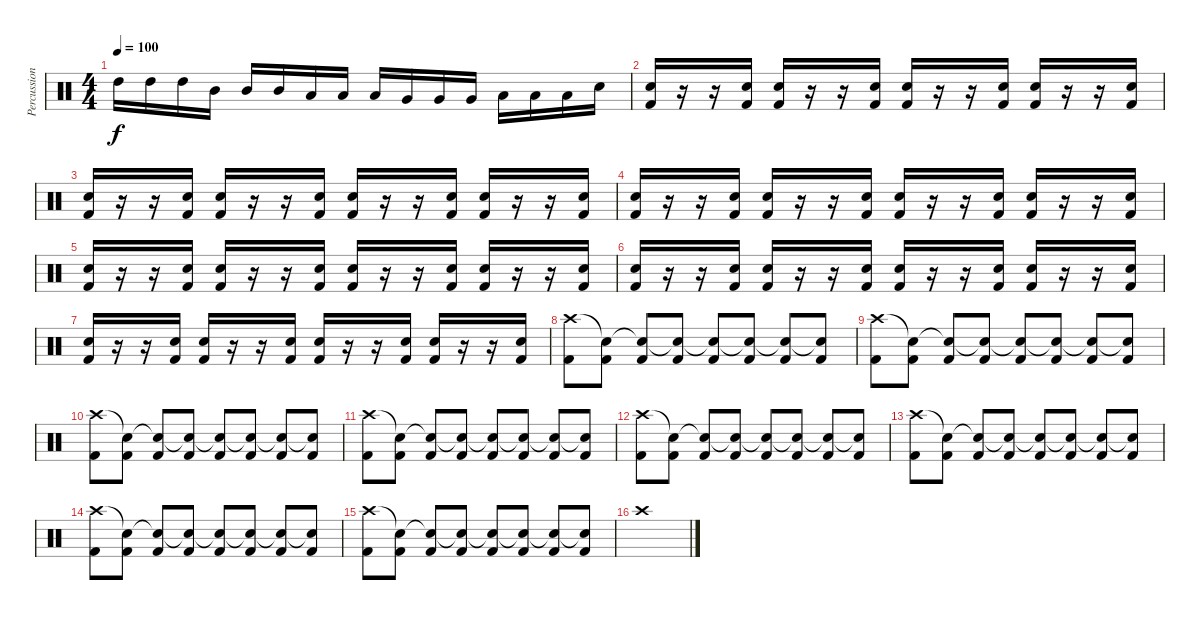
\track ("Percussion" "Percussion") {instrument percussion}
\staff {score}
\articulation defaults
\ts (4 4)
\tempo 100
\clef neutral
\ks c "High Tom (hit)".16{dy f} "High Tom (hit)".16 "High Tom (hit)".16 "Mid Tom (hit)".16 "Mid Tom (hit)".16 "Mid Tom (hit)".16 "Low Tom (hit)".16 "Low Tom (hit)".16 "Low Tom (hit)".16 "Very Low Tom (hit)".16 "Very Low Tom (hit)".16 "Very Low Tom (hit)".16 "Low Floor Tom (hit)".16 "Low Floor Tom (hit)".16 "Low Floor Tom (hit)".16 "Snare (hit) 2".16
|
("Snare (hit) 2" "Kick (hit) 2").16 r.16 r.16 ("Snare (hit) 2" "Kick (hit) 2").16 ("Snare (hit) 2" "Kick (hit) 2").16 r.16 r.16 ("Snare (hit) 2" "Kick (hit) 2").16 ("Snare (hit) 2" "Kick (hit) 2").16 r.16 r.16 ("Snare (hit) 2" "Kick (hit) 2").16 ("Snare (hit) 2" "Kick (hit) 2").16 r.16 r.16 ("Snare (hit) 2" "Kick (hit) 2").16 |
("Snare (hit) 2" "Kick (hit) 2").16 r.16 r.16 ("Snare (hit) 2" "Kick (hit) 2").16 ("Snare (hit) 2" "Kick (hit) 2").16 r.16 r.16 ("Snare (hit) 2" "Kick (hit) 2").16 ("Snare (hit) 2" "Kick (hit) 2").16 r.16 r.16 ("Snare (hit) 2" "Kick (hit) 2").16 ("Snare (hit) 2" "Kick (hit) 2").16 r.16 r.16 ("Snare (hit) 2" "Kick (hit) 2").16 |
("Snare (hit) 2" "Kick (hit) 2").16 r.16 r.16 ("Snare (hit) 2" "Kick (hit) 2").16 ("Snare (hit) 2" "Kick (hit) 2").16 r.16 r.16 ("Snare (hit) 2" "Kick (hit) 2").16 ("Snare (hit) 2" "Kick (hit) 2").16 r.16 r.16 ("Snare (hit) 2" "Kick (hit) 2").16 ("Snare (hit) 2" "Kick (hit) 2").16 r.16 r.16 ("Snare (hit) 2" "Kick (hit) 2").16 |
("Snare (hit) 2" "Kick (hit) 2").16 r.16 r.16 ("Snare (hit) 2" "Kick (hit) 2").16 ("Snare (hit) 2" "Kick (hit) 2").16 r.16 r.16 ("Snare (hit) 2" "Kick (hit) 2").16 ("Snare (hit) 2" "Kick (hit) 2").16 r.16 r.16 ("Snare (hit) 2" "Kick (hit) 2").16 ("Snare (hit) 2" "Kick (hit) 2").16 r.16 r.16 ("Snare (hit) 2" "Kick (hit) 2").16 |
("Snare (hit) 2" "Kick (hit) 2").16 r.16 r.16 ("Snare (hit) 2" "Kick (hit) 2").16 ("Snare (hit) 2" "Kick (hit) 2").16 r.16 r.16 ("Snare (hit) 2" "Kick (hit) 2").16 ("Snare (hit) 2" "Kick (hit) 2").16 r.16 r.16 ("Snare (hit) 2" "Kick (hit) 2").16 ("Snare (hit) 2" "Kick (hit) 2").16 r.16 r.16 ("Snare (hit) 2" "Kick (hit) 2").16 |
("Snare (hit) 2" "Kick (hit) 2").16 r.16 r.16 ("Snare (hit) 2" "Kick (hit) 2").16 ("Snare (hit) 2" "Kick (hit) 2").16 r.16 r.16 ("Snare (hit) 2" "Kick (hit) 2").16 ("Snare (hit) 2" "Kick (hit) 2").16 r.16 r.16 ("Snare (hit) 2" "Kick (hit) 2").16 ("Snare (hit) 2" "Kick (hit) 2").16 r.16 r.16 ("Snare (hit) 2" "Kick (hit) 2").16 |
("Crash high (hit)" "Kick (hit) 2").8 ("Snare (hit)"{t} "Kick (hit) 2").8 ("Snare (hit)"{t} "Kick (hit) 2").8 ("Snare (hit)"{t} "Kick (hit) 2").8 ("Snare (hit)"{t} "Kick (hit) 2").8 ("Snare (hit)"{t} "Kick (hit) 2").8 ("Snare (hit)"{t} "Kick (hit) 2").8 ("Snare (hit)"{t} "Kick (hit) 2").8 |
("Crash high (hit)" "Kick (hit) 2").8 ("Snare (hit)"{t} "Kick (hit) 2").8 ("Snare (hit)"{t} "Kick (hit) 2").8 ("Snare (hit)"{t} "Kick (hit) 2").8 ("Snare (hit)"{t} "Kick (hit) 2").8 ("Snare (hit)"{t} "Kick (hit) 2").8 ("Snare (hit)"{t} "Kick (hit) 2").8 ("Snare (hit)"{t} "Kick (hit) 2").8 |
("Crash high (hit)" "Kick (hit) 2").8 ("Snare (hit)"{t} "Kick (hit) 2").8 ("Snare (hit)"{t} "Kick (hit) 2").8 ("Snare (hit)"{t} "Kick (hit) 2").8 ("Snare (hit)"{t} "Kick (hit) 2").8 ("Snare (hit)"{t} "Kick (hit) 2").8 ("Snare (hit)"{t} "Kick (hit) 2").8 ("Snare (hit)"{t} "Kick (hit) 2").8 |
("Crash high (hit)" "Kick (hit) 2").8 ("Snare (hit)"{t} "Kick (hit) 2").8 ("Snare (hit)"{t} "Kick (hit) 2").8 ("Snare (hit)"{t} "Kick (hit) 2").8 ("Snare (hit)"{t} "Kick (hit) 2").8 ("Snare (hit)"{t} "Kick (hit) 2").8 ("Snare (hit)"{t} "Kick (hit) 2").8 ("Snare (hit)"{t} "Kick (hit) 2").8 |
("Crash high (hit)" "Kick (hit) 2").8 ("Snare (hit)"{t} "Kick (hit) 2").8 ("Snare (hit)"{t} "Kick (hit) 2").8 ("Snare (hit)"{t} "Kick (hit) 2").8 ("Snare (hit)"{t} "Kick (hit) 2").8 ("Snare (hit)"{t} "Kick (hit) 2").8 ("Snare (hit)"{t} "Kick (hit) 2").8 ("Snare (hit)"{t} "Kick (hit) 2").8 |
("Crash high (hit)" "Kick (hit) 2").8 ("Snare (hit)"{t} "Kick (hit) 2").8 ("Snare (hit)"{t} "Kick (hit) 2").8 ("Snare (hit)"{t} "Kick (hit) 2").8 ("Snare (hit)"{t} "Kick (hit) 2").8 ("Snare (hit)"{t} "Kick (hit) 2").8 ("Snare (hit)"{t} "Kick (hit) 2").8 ("Snare (hit)"{t} "Kick (hit) 2").8 |
("Crash high (hit)" "Kick (hit) 2").8 ("Snare (hit)"{t} "Kick (hit) 2").8 ("Snare (hit)"{t} "Kick (hit) 2").8 ("Snare (hit)"{t} "Kick (hit) 2").8 ("Snare (hit)"{t} "Kick (hit) 2").8 ("Snare (hit)"{t} "Kick (hit) 2").8 ("Snare (hit)"{t} "Kick (hit) 2").8 ("Snare (hit)"{t} "Kick (hit) 2").8 |
("Crash high (hit)" "Kick (hit) 2").8 ("Snare (hit)"{t} "Kick (hit) 2").8 ("Snare (hit)"{t} "Kick (hit) 2").8 ("Snare (hit)"{t} "Kick (hit) 2").8 ("Snare (hit)"{t} "Kick (hit) 2").8 ("Snare (hit)"{t} "Kick (hit) 2").8 ("Snare (hit)"{t} "Kick (hit) 2").8 ("Snare (hit)"{t} "Kick (hit) 2").8 |
"Crash high (hit)".1
